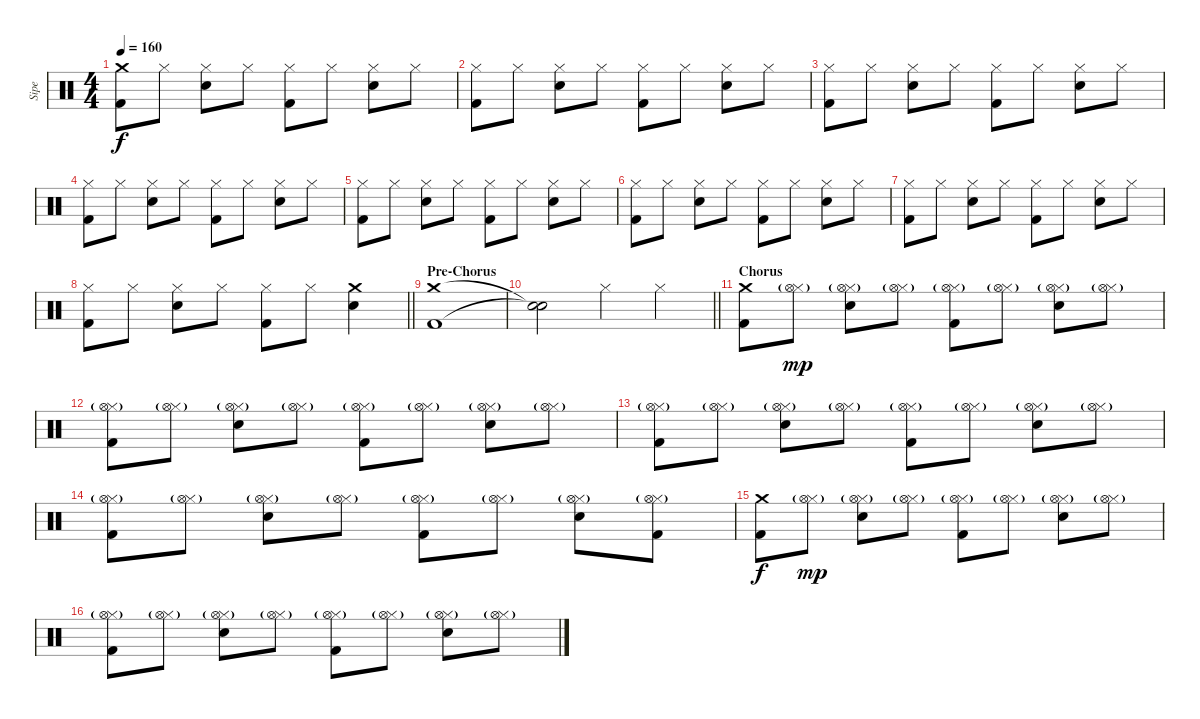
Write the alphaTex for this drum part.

\track ("Sipe" "Sipe") {instrument percussion}
\staff {score}
\articulation defaults
\ts (4 4)
\section ("" "")
\tempo 160
\clef neutral
\ks c
("Crash medium (hit)" "Kick (hit) 2").8{dy f} "Hi-Hat (closed)".8 ("Hi-Hat (closed)" "Snare (hit) 2").8 "Hi-Hat (closed)".8 ("Hi-Hat (closed)" "Kick (hit) 2").8 "Hi-Hat (closed)".8 ("Hi-Hat (closed)" "Snare (hit) 2").8 "Hi-Hat (closed)".8 |
("Hi-Hat (closed)" "Kick (hit) 2").8 "Hi-Hat (closed)".8 ("Hi-Hat (closed)" "Snare (hit) 2").8 "Hi-Hat (closed)".8 ("Hi-Hat (closed)" "Kick (hit) 2").8 "Hi-Hat (closed)".8 ("Hi-Hat (closed)" "Snare (hit) 2").8 "Hi-Hat (closed)".8 |
("Hi-Hat (closed)" "Kick (hit) 2").8 "Hi-Hat (closed)".8 ("Hi-Hat (closed)" "Snare (hit) 2").8 "Hi-Hat (closed)".8 ("Hi-Hat (closed)" "Kick (hit) 2").8 "Hi-Hat (closed)".8 ("Hi-Hat (closed)" "Snare (hit) 2").8 "Hi-Hat (closed)".8 |
("Hi-Hat (closed)" "Kick (hit) 2").8 "Hi-Hat (closed)".8 ("Hi-Hat (closed)" "Snare (hit) 2").8 "Hi-Hat (closed)".8 ("Hi-Hat (closed)" "Kick (hit) 2").8 "Hi-Hat (closed)".8 ("Hi-Hat (closed)" "Snare (hit) 2").8 "Hi-Hat (closed)".8 |
("Hi-Hat (closed)" "Kick (hit) 2").8 "Hi-Hat (closed)".8 ("Hi-Hat (closed)" "Snare (hit) 2").8 "Hi-Hat (closed)".8 ("Hi-Hat (closed)" "Kick (hit) 2").8 "Hi-Hat (closed)".8 ("Hi-Hat (closed)" "Snare (hit) 2").8 "Hi-Hat (closed)".8 |
("Hi-Hat (closed)" "Kick (hit) 2").8 "Hi-Hat (closed)".8 ("Hi-Hat (closed)" "Snare (hit) 2").8 "Hi-Hat (closed)".8 ("Hi-Hat (closed)" "Kick (hit) 2").8 "Hi-Hat (closed)".8 ("Hi-Hat (closed)" "Snare (hit) 2").8 "Hi-Hat (closed)".8 |
("Hi-Hat (closed)" "Kick (hit) 2").8 "Hi-Hat (closed)".8 ("Hi-Hat (closed)" "Snare (hit) 2").8 "Hi-Hat (closed)".8 ("Hi-Hat (closed)" "Kick (hit) 2").8 "Hi-Hat (closed)".8 ("Hi-Hat (closed)" "Snare (hit) 2").8 "Hi-Hat (closed)".8 |
\barLineRight lightlight
("Hi-Hat (closed)" "Kick (hit) 2").8 "Hi-Hat (closed)".8 ("Hi-Hat (closed)" "Snare (hit) 2").8 "Hi-Hat (closed)".8 ("Hi-Hat (closed)" "Kick (hit) 2").8 "Hi-Hat (closed)".8 ("Crash medium (hit)" "Snare (hit) 2").4 |
\section ("" "Pre-Chorus")
("Kick (hit) 2" "Crash medium (hit)").1 |
\barLineRight lightlight
("Snare (hit)"{t} "Snare (hit)"{t}).2 "Hi-Hat (closed)".4 "Hi-Hat (closed)".4 |
\section ("" "Chorus")
("Crash medium (hit)" "Kick (hit) 2").8 ("Hi-Hat (closed)" "Hi-Hat (open)"{g}).8{dy mp} ("Hi-Hat (closed)" "Snare (hit) 2" "Hi-Hat (open)"{g}).8 ("Hi-Hat (closed)" "Hi-Hat (open)"{g}).8 ("Hi-Hat (closed)" "Kick (hit) 2" "Hi-Hat (open)"{g}).8 ("Hi-Hat (closed)" "Hi-Hat (open)"{g}).8 ("Hi-Hat (closed)" "Snare (hit) 2" "Hi-Hat (open)"{g}).8 ("Hi-Hat (closed)" "Hi-Hat (open)"{g}).8 |
("Hi-Hat (closed)" "Kick (hit) 2" "Hi-Hat (open)"{g}).8 ("Hi-Hat (closed)" "Hi-Hat (open)"{g}).8 ("Hi-Hat (closed)" "Snare (hit) 2" "Hi-Hat (open)"{g}).8 ("Hi-Hat (closed)" "Hi-Hat (open)"{g}).8 ("Hi-Hat (closed)" "Kick (hit) 2" "Hi-Hat (open)"{g}).8 ("Hi-Hat (closed)" "Hi-Hat (open)"{g}).8 ("Hi-Hat (closed)" "Snare (hit) 2" "Hi-Hat (open)"{g}).8 ("Hi-Hat (closed)" "Hi-Hat (open)"{g}).8 |
("Hi-Hat (closed)" "Kick (hit) 2" "Hi-Hat (open)"{g}).8 ("Hi-Hat (closed)" "Hi-Hat (open)"{g}).8 ("Hi-Hat (closed)" "Snare (hit) 2" "Hi-Hat (open)"{g}).8 ("Hi-Hat (closed)" "Hi-Hat (open)"{g}).8 ("Hi-Hat (closed)" "Kick (hit) 2" "Hi-Hat (open)"{g}).8 ("Hi-Hat (closed)" "Hi-Hat (open)"{g}).8 ("Hi-Hat (closed)" "Snare (hit) 2" "Hi-Hat (open)"{g}).8 ("Hi-Hat (closed)" "Hi-Hat (open)"{g}).8 |
("Hi-Hat (closed)" "Kick (hit) 2" "Hi-Hat (open)"{g}).8 ("Hi-Hat (closed)" "Hi-Hat (open)"{g}).8 ("Hi-Hat (closed)" "Snare (hit) 2" "Hi-Hat (open)"{g}).8 ("Hi-Hat (closed)" "Hi-Hat (open)"{g}).8 ("Hi-Hat (closed)" "Kick (hit) 2" "Hi-Hat (open)"{g}).8 ("Hi-Hat (closed)" "Hi-Hat (open)"{g}).8 ("Hi-Hat (closed)" "Snare (hit) 2" "Hi-Hat (open)"{g}).8 ("Hi-Hat (closed)" "Kick (hit) 2" "Hi-Hat (open)"{g}).8 |
("Crash medium (hit)" "Kick (hit) 2").8{dy f} ("Hi-Hat (closed)" "Hi-Hat (open)"{g}).8{dy mp} ("Hi-Hat (closed)" "Snare (hit) 2" "Hi-Hat (open)"{g}).8 ("Hi-Hat (closed)" "Hi-Hat (open)"{g}).8 ("Hi-Hat (closed)" "Kick (hit) 2" "Hi-Hat (open)"{g}).8 ("Hi-Hat (closed)" "Hi-Hat (open)"{g}).8 ("Hi-Hat (closed)" "Snare (hit) 2" "Hi-Hat (open)"{g}).8 ("Hi-Hat (closed)" "Hi-Hat (open)"{g}).8 |
("Hi-Hat (closed)" "Kick (hit) 2" "Hi-Hat (open)"{g}).8 ("Hi-Hat (closed)" "Hi-Hat (open)"{g}).8 ("Hi-Hat (closed)" "Snare (hit) 2" "Hi-Hat (open)"{g}).8 ("Hi-Hat (closed)" "Hi-Hat (open)"{g}).8 ("Hi-Hat (closed)" "Kick (hit) 2" "Hi-Hat (open)"{g}).8 ("Hi-Hat (closed)" "Hi-Hat (open)"{g}).8 ("Hi-Hat (closed)" "Snare (hit) 2" "Hi-Hat (open)"{g}).8 ("Hi-Hat (closed)" "Hi-Hat (open)"{g}).8
